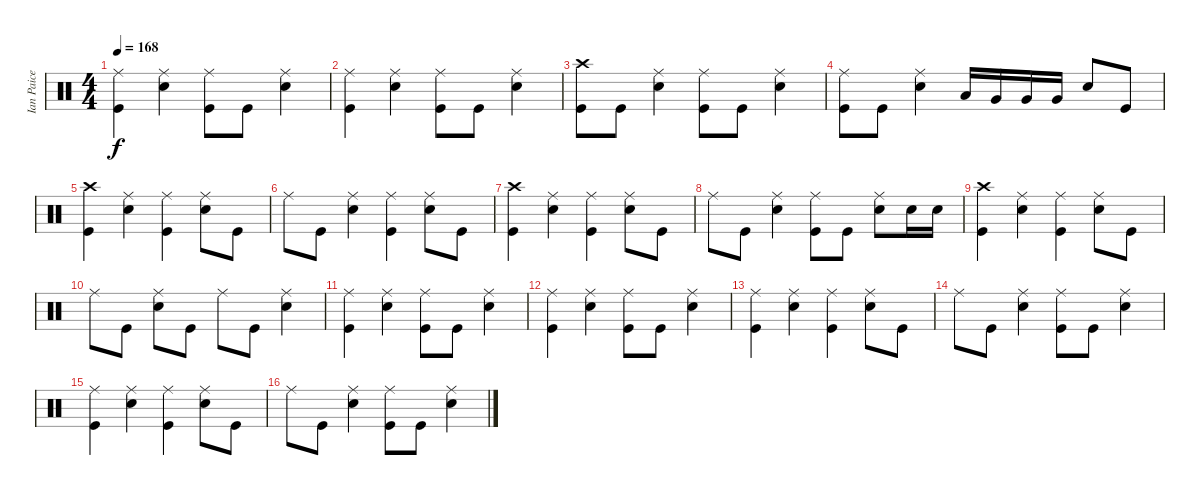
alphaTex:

\track ("Ian Paice" "Ian Paice") {instrument percussion}
\staff {score}
\articulation defaults
\ts (4 4)
\tempo 168
\clef neutral
\ks c
("Kick (hit)" "Ride (middle)").4{dy f} ("Ride (middle)" "Snare (hit) 2").4 ("Ride (middle)" "Kick (hit)").8 "Kick (hit)".8 ("Ride (middle)" "Snare (hit) 2").4 |
("Kick (hit)" "Ride (middle)").4 ("Ride (middle)" "Snare (hit) 2").4 ("Ride (middle)" "Kick (hit)").8 "Kick (hit)".8 ("Ride (middle)" "Snare (hit) 2").4 |
("Kick (hit)" "Crash high (hit)").8 "Kick (hit)".8 ("Snare (hit) 2" "Ride (middle)").4 ("Kick (hit)" "Ride (middle)").8 "Kick (hit)".8 ("Snare (hit) 2" "Ride (middle)").4 |
("Ride (middle)" "Kick (hit)").8 "Kick (hit)".8 ("Snare (hit) 2" "Ride (middle)").4 "Low Tom (hit)".16 "Very Low Tom (hit)".16 "Very Low Tom (hit)".16 "Very Low Tom (hit)".16 "Snare (hit) 2".8 "Kick (hit)".8 |
("Kick (hit)" "Crash high (hit)").4 ("Snare (hit) 2" "Ride (middle)").4 ("Ride (middle)" "Kick (hit)").4 ("Ride (middle)" "Snare (hit) 2").8 "Kick (hit)".8 |
"Ride (middle)".8 "Kick (hit)".8 ("Snare (hit) 2" "Ride (middle)").4 ("Kick (hit)" "Ride (middle)").4 ("Snare (hit) 2" "Ride (middle)").8 "Kick (hit)".8 |
("Kick (hit)" "Crash high (hit)").4 ("Snare (hit) 2" "Ride (middle)").4 ("Ride (middle)" "Kick (hit)").4 ("Ride (middle)" "Snare (hit) 2").8 "Kick (hit)".8 |
"Ride (middle)".8 "Kick (hit)".8 ("Ride (middle)" "Snare (hit) 2").4 ("Kick (hit)" "Ride (middle)").8 "Kick (hit)".8 ("Snare (hit) 2" "Ride (middle)").8 "Snare (hit) 2".16 "Snare (hit) 2".16 |
("Kick (hit)" "Crash high (hit)").4 ("Snare (hit) 2" "Ride (middle)").4 ("Ride (middle)" "Kick (hit)").4 ("Ride (middle)" "Snare (hit) 2").8 "Kick (hit)".8 |
"Ride (middle)".8 "Kick (hit)".8 ("Ride (middle)" "Snare (hit) 2").8 "Kick (hit)".8 "Ride (middle)".8 "Kick (hit)".8 ("Ride (middle)" "Snare (hit) 2").4 |
("Kick (hit)" "Ride (middle)").4 ("Snare (hit) 2" "Ride (middle)").4 ("Ride (middle)" "Kick (hit)").8 "Kick (hit)".8 ("Ride (middle)" "Snare (hit) 2").4 |
("Ride (middle)" "Kick (hit)").4 ("Snare (hit) 2" "Ride (middle)").4 ("Ride (middle)" "Kick (hit)").8 "Kick (hit)".8 ("Snare (hit) 2" "Ride (middle)").4 |
("Kick (hit)" "Ride (middle)").4 ("Ride (middle)" "Snare (hit) 2").4 ("Kick (hit)" "Ride (middle)").4 ("Ride (middle)" "Snare (hit) 2").8 "Kick (hit)".8 |
"Ride (middle)".8 "Kick (hit)".8 ("Ride (middle)" "Snare (hit) 2").4 ("Ride (middle)" "Kick (hit)").8 "Kick (hit)".8 ("Snare (hit) 2" "Ride (middle)").4 |
("Kick (hit)" "Ride (middle)").4 ("Snare (hit) 2" "Ride (middle)").4 ("Ride (middle)" "Kick (hit)").4 ("Ride (middle)" "Snare (hit) 2").8 "Kick (hit)".8 |
"Ride (middle)".8 "Kick (hit)".8 ("Ride (middle)" "Snare (hit) 2").4 ("Ride (middle)" "Kick (hit)").8 "Kick (hit)".8 ("Snare (hit) 2" "Ride (middle)").4
